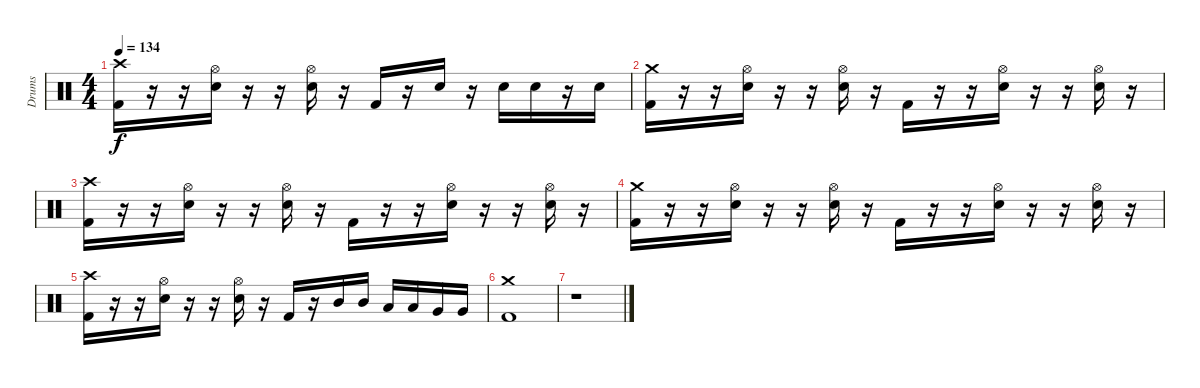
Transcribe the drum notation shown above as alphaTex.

\track ("Drums" "Drums") {instrument percussion}
\staff {score}
\articulation defaults
\ts (4 4)
\tempo 134
\clef neutral
\ks c
("Crash high (hit)" "Kick (hit) 2").16{dy f} r.16 r.16 ("Hi-Hat (open)" "Electric Snare (hit)").16 r.16 r.16 ("Hi-Hat (open)" "Electric Snare (hit)").16 r.16 "Kick (hit) 2".16 r.16 "Electric Snare (hit)".16 r.16 "Electric Snare (hit)".16 "Electric Snare (hit)".16 r.16 "Electric Snare (hit)".16 |
("Crash medium (hit)" "Kick (hit) 2").16 r.16 r.16 ("Hi-Hat (open)" "Electric Snare (hit)").16 r.16 r.16 ("Hi-Hat (open)" "Electric Snare (hit)").16 r.16 "Kick (hit) 2".16 r.16 r.16 ("Hi-Hat (open)" "Electric Snare (hit)").16 r.16 r.16 ("Hi-Hat (open)" "Electric Snare (hit)").16 r.16 |
("Crash high (hit)" "Kick (hit) 2").16 r.16 r.16 ("Hi-Hat (open)" "Electric Snare (hit)").16 r.16 r.16 ("Hi-Hat (open)" "Electric Snare (hit)").16 r.16 "Kick (hit) 2".16 r.16 r.16 ("Hi-Hat (open)" "Electric Snare (hit)").16 r.16 r.16 ("Hi-Hat (open)" "Electric Snare (hit)").16 r.16 |
("Crash medium (hit)" "Kick (hit) 2").16 r.16 r.16 ("Hi-Hat (open)" "Electric Snare (hit)").16 r.16 r.16 ("Hi-Hat (open)" "Electric Snare (hit)").16 r.16 "Kick (hit) 2".16 r.16 r.16 ("Hi-Hat (open)" "Electric Snare (hit)").16 r.16 r.16 ("Hi-Hat (open)" "Electric Snare (hit)").16 r.16 |
("Crash high (hit)" "Kick (hit) 2").16 r.16 r.16 ("Hi-Hat (open)" "Electric Snare (hit)").16 r.16 r.16 ("Hi-Hat (open)" "Electric Snare (hit)").16 r.16 "Kick (hit) 2".16 r.16 "Mid Tom (hit)".16 "Mid Tom (hit)".16 "Low Tom (hit)".16 "Low Tom (hit)".16 "Very Low Tom (hit)".16 "Very Low Tom (hit)".16 |
("Crash medium (hit)" "Kick (hit) 2").1 |
r.1
